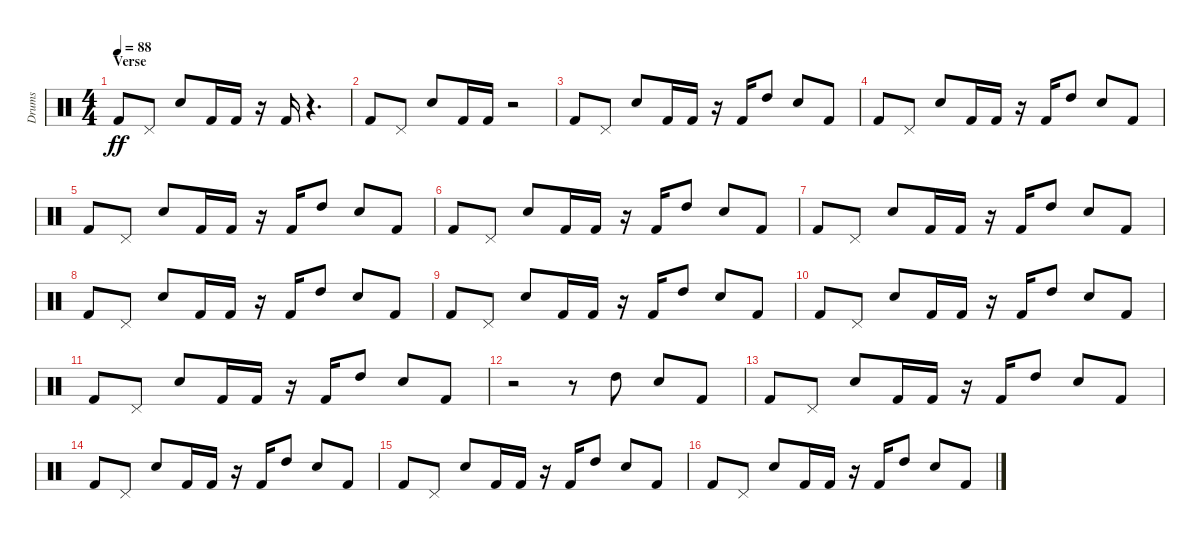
\track ("Drums" "Drums") {solo instrument percussion}
\staff {score}
\articulation defaults
\ts (4 4)
\section ("" "Verse")
\tempo 88
\clef neutral
\ks aminor "Kick (hit) 2".8{dy ff} "Pedal Hi-Hat (hit)".8 "Snare (hit) 2".8 "Kick (hit) 2".16 "Kick (hit) 2".16
r.16 "Kick (hit) 2".16 r.4{d} |
"Kick (hit) 2".8 "Pedal Hi-Hat (hit)".8 "Snare (hit) 2".8 "Kick (hit) 2".16 "Kick (hit) 2".16 r.2 |
"Kick (hit) 2".8 "Pedal Hi-Hat (hit)".8 "Snare (hit) 2".8 "Kick (hit) 2".16 "Kick (hit) 2".16 r.16 "Kick (hit) 2".16 "High Tom (hit)".8 "Snare (hit) 2".8 "Kick (hit) 2".8 |
"Kick (hit) 2".8 "Pedal Hi-Hat (hit)".8 "Snare (hit) 2".8 "Kick (hit) 2".16 "Kick (hit) 2".16 r.16 "Kick (hit) 2".16 "High Tom (hit)".8 "Snare (hit) 2".8 "Kick (hit) 2".8 |
"Kick (hit) 2".8 "Pedal Hi-Hat (hit)".8 "Snare (hit) 2".8 "Kick (hit) 2".16 "Kick (hit) 2".16 r.16 "Kick (hit) 2".16 "High Tom (hit)".8 "Snare (hit) 2".8 "Kick (hit) 2".8 |
"Kick (hit) 2".8 "Pedal Hi-Hat (hit)".8 "Snare (hit) 2".8 "Kick (hit) 2".16 "Kick (hit) 2".16 r.16 "Kick (hit) 2".16 "High Tom (hit)".8 "Snare (hit) 2".8 "Kick (hit) 2".8 |
"Kick (hit) 2".8 "Pedal Hi-Hat (hit)".8 "Snare (hit) 2".8 "Kick (hit) 2".16 "Kick (hit) 2".16 r.16 "Kick (hit) 2".16 "High Tom (hit)".8 "Snare (hit) 2".8 "Kick (hit) 2".8 |
"Kick (hit) 2".8 "Pedal Hi-Hat (hit)".8 "Snare (hit) 2".8 "Kick (hit) 2".16 "Kick (hit) 2".16 r.16 "Kick (hit) 2".16 "High Tom (hit)".8 "Snare (hit) 2".8 "Kick (hit) 2".8 |
"Kick (hit) 2".8 "Pedal Hi-Hat (hit)".8 "Snare (hit) 2".8 "Kick (hit) 2".16 "Kick (hit) 2".16 r.16 "Kick (hit) 2".16 "High Tom (hit)".8 "Snare (hit) 2".8 "Kick (hit) 2".8 |
"Kick (hit) 2".8 "Pedal Hi-Hat (hit)".8 "Snare (hit) 2".8 "Kick (hit) 2".16 "Kick (hit) 2".16 r.16 "Kick (hit) 2".16 "High Tom (hit)".8 "Snare (hit) 2".8 "Kick (hit) 2".8 |
"Kick (hit) 2".8 "Pedal Hi-Hat (hit)".8 "Snare (hit) 2".8 "Kick (hit) 2".16 "Kick (hit) 2".16 r.16 "Kick (hit) 2".16 "High Tom (hit)".8 "Snare (hit) 2".8 "Kick (hit) 2".8 |
r.2 r.8 "High Tom (hit)".8 "Snare (hit) 2".8 "Kick (hit) 2".8 |
"Kick (hit) 2".8 "Pedal Hi-Hat (hit)".8 "Snare (hit) 2".8 "Kick (hit) 2".16 "Kick (hit) 2".16 r.16 "Kick (hit) 2".16 "High Tom (hit)".8 "Snare (hit) 2".8 "Kick (hit) 2".8 |
"Kick (hit) 2".8 "Pedal Hi-Hat (hit)".8 "Snare (hit) 2".8 "Kick (hit) 2".16 "Kick (hit) 2".16 r.16 "Kick (hit) 2".16 "High Tom (hit)".8 "Snare (hit) 2".8 "Kick (hit) 2".8 |
"Kick (hit) 2".8 "Pedal Hi-Hat (hit)".8 "Snare (hit) 2".8 "Kick (hit) 2".16 "Kick (hit) 2".16 r.16 "Kick (hit) 2".16 "High Tom (hit)".8 "Snare (hit) 2".8 "Kick (hit) 2".8 |
"Kick (hit) 2".8 "Pedal Hi-Hat (hit)".8 "Snare (hit) 2".8 "Kick (hit) 2".16 "Kick (hit) 2".16 r.16 "Kick (hit) 2".16 "High Tom (hit)".8 "Snare (hit) 2".8 "Kick (hit) 2".8
